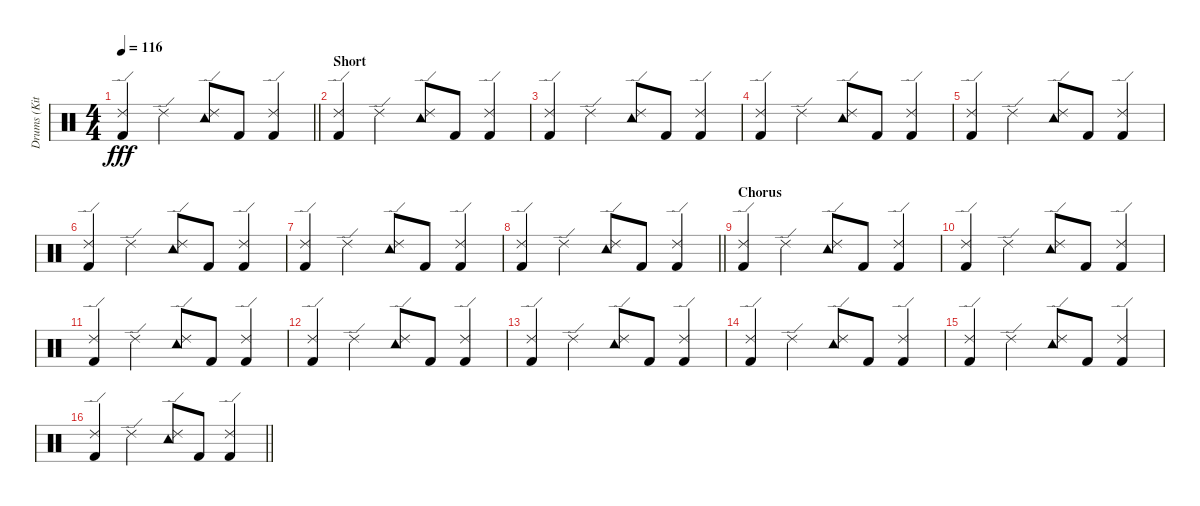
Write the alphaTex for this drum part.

\track ("Drums (Kit)" "Drums (Kit") {instrument percussion}
\staff {score}
\articulation defaults
\ts (4 4)
\tempo 116
\clef neutral
\barLineRight lightlight
\ks c
("Kick (hit) 2" "Ride (edge) 2").4{dy fff} "Ride (edge) 2".4 ("Ride (edge) 2" "Tambourine (hit)").8 "Kick (hit) 2".8 ("Ride (edge) 2" "Kick (hit) 2").4 |
\section ("" "Short")
("Ride (edge) 2" "Kick (hit) 2").4 "Ride (edge) 2".4 ("Ride (edge) 2" "Tambourine (hit)").8 "Kick (hit) 2".8 ("Ride (edge) 2" "Kick (hit) 2").4 |
("Kick (hit) 2" "Ride (edge) 2").4 "Ride (edge) 2".4 ("Ride (edge) 2" "Tambourine (hit)").8 "Kick (hit) 2".8 ("Ride (edge) 2" "Kick (hit) 2").4 |
("Ride (edge) 2" "Kick (hit) 2").4 "Ride (edge) 2".4 ("Ride (edge) 2" "Tambourine (hit)").8 "Kick (hit) 2".8 ("Ride (edge) 2" "Kick (hit) 2").4 |
("Kick (hit) 2" "Ride (edge) 2").4 "Ride (edge) 2".4 ("Ride (edge) 2" "Tambourine (hit)").8 "Kick (hit) 2".8 ("Ride (edge) 2" "Kick (hit) 2").4 |
("Ride (edge) 2" "Kick (hit) 2").4 "Ride (edge) 2".4 ("Ride (edge) 2" "Tambourine (hit)").8 "Kick (hit) 2".8 ("Ride (edge) 2" "Kick (hit) 2").4 |
("Kick (hit) 2" "Ride (edge) 2").4 "Ride (edge) 2".4 ("Ride (edge) 2" "Tambourine (hit)").8 "Kick (hit) 2".8 ("Ride (edge) 2" "Kick (hit) 2").4 |
\barLineRight lightlight
("Ride (edge) 2" "Kick (hit) 2").4 "Ride (edge) 2".4 ("Ride (edge) 2" "Tambourine (hit)").8 "Kick (hit) 2".8 ("Ride (edge) 2" "Kick (hit) 2").4 |
\section ("" "Chorus")
("Kick (hit) 2" "Ride (edge) 2").4 "Ride (edge) 2".4 ("Ride (edge) 2" "Tambourine (hit)").8 "Kick (hit) 2".8 ("Ride (edge) 2" "Kick (hit) 2").4 |
("Ride (edge) 2" "Kick (hit) 2").4 "Ride (edge) 2".4 ("Ride (edge) 2" "Tambourine (hit)").8 "Kick (hit) 2".8 ("Ride (edge) 2" "Kick (hit) 2").4 |
("Kick (hit) 2" "Ride (edge) 2").4 "Ride (edge) 2".4 ("Ride (edge) 2" "Tambourine (hit)").8 "Kick (hit) 2".8 ("Ride (edge) 2" "Kick (hit) 2").4 |
("Ride (edge) 2" "Kick (hit) 2").4 "Ride (edge) 2".4 ("Ride (edge) 2" "Tambourine (hit)").8 "Kick (hit) 2".8 ("Ride (edge) 2" "Kick (hit) 2").4 |
("Kick (hit) 2" "Ride (edge) 2").4 "Ride (edge) 2".4 ("Ride (edge) 2" "Tambourine (hit)").8 "Kick (hit) 2".8 ("Ride (edge) 2" "Kick (hit) 2").4 |
("Ride (edge) 2" "Kick (hit) 2").4 "Ride (edge) 2".4 ("Ride (edge) 2" "Tambourine (hit)").8 "Kick (hit) 2".8 ("Ride (edge) 2" "Kick (hit) 2").4 |
("Kick (hit) 2" "Ride (edge) 2").4 "Ride (edge) 2".4 ("Ride (edge) 2" "Tambourine (hit)").8 "Kick (hit) 2".8 ("Ride (edge) 2" "Kick (hit) 2").4 |
\barLineRight lightlight
("Ride (edge) 2" "Kick (hit) 2").4 "Ride (edge) 2".4 ("Ride (edge) 2" "Tambourine (hit)").8 "Kick (hit) 2".8 ("Ride (edge) 2" "Kick (hit) 2").4
